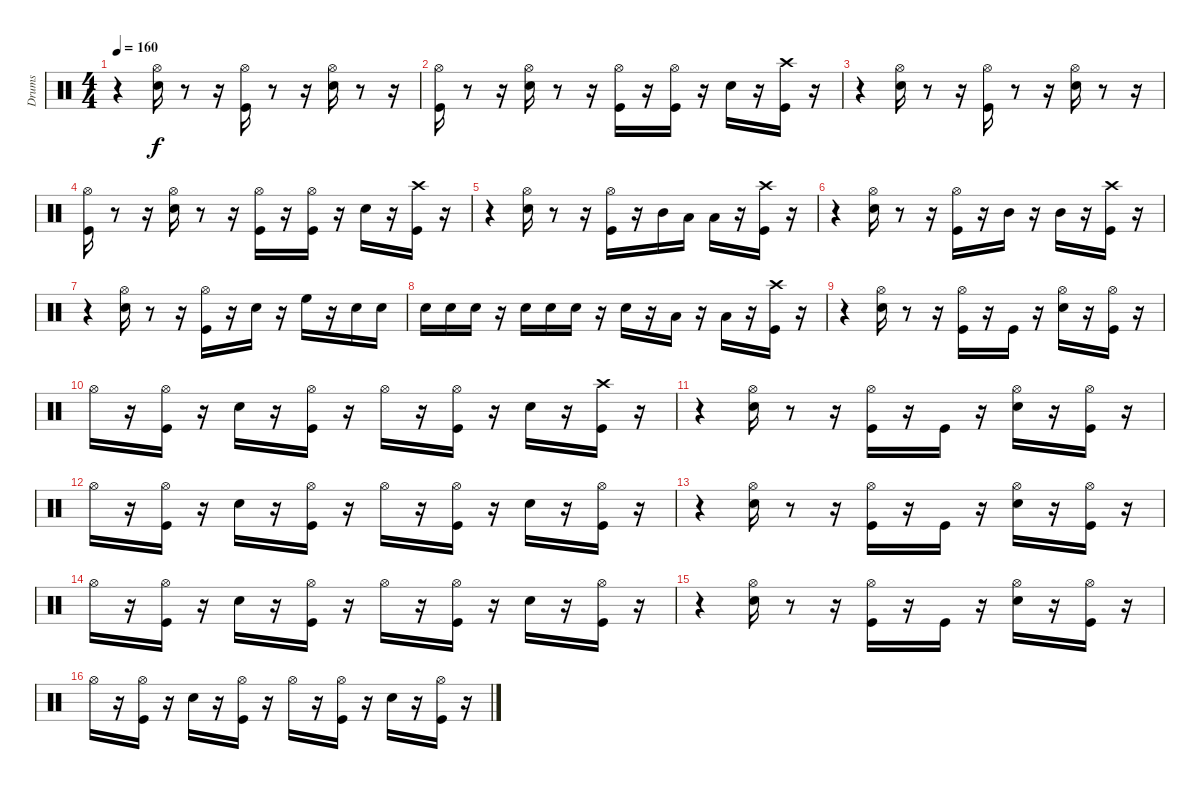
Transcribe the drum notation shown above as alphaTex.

\track ("Drums" "Drums") {instrument percussion}
\staff {score}
\articulation defaults
\ts (4 4)
\tempo 160
\clef neutral
\ks c
r.4{dy f} ("Snare (hit) 2" "Hi-Hat (open)").16 r.8 r.16 ("Kick (hit)" "Hi-Hat (open)").16 r.8 r.16 ("Snare (hit) 2" "Hi-Hat (open)").16 r.8 r.16 |
("Kick (hit)" "Hi-Hat (open)").16 r.8 r.16 ("Hi-Hat (open)" "Snare (hit) 2").16 r.8 r.16 ("Kick (hit)" "Hi-Hat (open)").16 r.16 ("Kick (hit)" "Hi-Hat (open)").16 r.16 "Snare (hit) 2".16 r.16 ("Kick (hit)" "Crash high (hit)").16 r.16 |
r.4 ("Snare (hit) 2" "Hi-Hat (open)").16 r.8 r.16 ("Kick (hit)" "Hi-Hat (open)").16 r.8 r.16 ("Snare (hit) 2" "Hi-Hat (open)").16 r.8 r.16 |
("Kick (hit)" "Hi-Hat (open)").16 r.8 r.16 ("Hi-Hat (open)" "Snare (hit) 2").16 r.8 r.16 ("Kick (hit)" "Hi-Hat (open)").16 r.16 ("Kick (hit)" "Hi-Hat (open)").16 r.16 "Snare (hit) 2".16 r.16 ("Kick (hit)" "Crash high (hit)").16 r.16 |
r.4 ("Snare (hit) 2" "Hi-Hat (open)").16 r.8 r.16 ("Kick (hit)" "Hi-Hat (open)").16 r.16 "Mid Tom (hit)".16 "Low Tom (hit)".16 "Low Tom (hit)".16 r.16 ("Kick (hit)" "Crash high (hit)").16 r.16 |
r.4 ("Snare (hit) 2" "Hi-Hat (open)").16 r.8 r.16 ("Kick (hit)" "Hi-Hat (open)").16 r.16 "Mid Tom (hit)".16 r.16 "Mid Tom (hit)".16 r.16 ("Kick (hit)" "Crash high (hit)").16 r.16 |
r.4 ("Hi-Hat (open)" "Snare (hit) 2").16 r.8 r.16 ("Kick (hit)" "Hi-Hat (open)").16 r.16 "Snare (hit) 2".16 r.16 "High Floor Tom (hit)".16 r.16 "Snare (hit) 2".16 "Snare (hit) 2".16 |
"Electric Snare (hit)".16 "Electric Snare (hit)".16 "Electric Snare (hit)".16 r.16 "Snare (hit) 2".16 "Snare (hit) 2".16 "Snare (hit) 2".16 r.16 "Electric Snare (hit)".16 r.16 "Low Tom (hit)".16 r.16 "Low Tom (hit)".16 r.16 ("Kick (hit)" "Crash high (hit)").16 r.16 |
r.4 ("Hi-Hat (open)" "Snare (hit) 2").16 r.8 r.16 ("Kick (hit)" "Hi-Hat (open)").16 r.16 "Kick (hit)".16 r.16 ("Snare (hit) 2" "Hi-Hat (open)").16 r.16 ("Kick (hit)" "Hi-Hat (open)").16 r.16 |
"Hi-Hat (open)".16 r.16 ("Kick (hit)" "Hi-Hat (open)").16 r.16 "Snare (hit) 2".16 r.16 ("Kick (hit)" "Hi-Hat (open)").16 r.16 "Hi-Hat (open)".16 r.16 ("Kick (hit)" "Hi-Hat (open)").16 r.16 "Snare (hit) 2".16 r.16 ("Kick (hit)" "Crash high (hit)").16 r.16 |
r.4 ("Snare (hit) 2" "Hi-Hat (open)").16 r.8 r.16 ("Kick (hit)" "Hi-Hat (open)").16 r.16 "Kick (hit)".16 r.16 ("Snare (hit) 2" "Hi-Hat (open)").16 r.16 ("Kick (hit)" "Hi-Hat (open)").16 r.16 |
"Hi-Hat (open)".16 r.16 ("Kick (hit)" "Hi-Hat (open)").16 r.16 "Snare (hit) 2".16 r.16 ("Kick (hit)" "Hi-Hat (open)").16 r.16 "Hi-Hat (open)".16 r.16 ("Kick (hit)" "Hi-Hat (open)").16 r.16 "Snare (hit) 2".16 r.16 ("Kick (hit)" "Hi-Hat (open)").16 r.16 |
r.4 ("Snare (hit) 2" "Hi-Hat (open)").16 r.8 r.16 ("Kick (hit)" "Hi-Hat (open)").16 r.16 "Kick (hit)".16 r.16 ("Snare (hit) 2" "Hi-Hat (open)").16 r.16 ("Kick (hit)" "Hi-Hat (open)").16 r.16 |
"Hi-Hat (open)".16 r.16 ("Kick (hit)" "Hi-Hat (open)").16 r.16 "Snare (hit) 2".16 r.16 ("Kick (hit)" "Hi-Hat (open)").16 r.16 "Hi-Hat (open)".16 r.16 ("Kick (hit)" "Hi-Hat (open)").16 r.16 "Snare (hit) 2".16 r.16 ("Kick (hit)" "Hi-Hat (open)").16 r.16 |
r.4 ("Snare (hit) 2" "Hi-Hat (open)").16 r.8 r.16 ("Kick (hit)" "Hi-Hat (open)").16 r.16 "Kick (hit)".16 r.16 ("Snare (hit) 2" "Hi-Hat (open)").16 r.16 ("Kick (hit)" "Hi-Hat (open)").16 r.16 |
"Hi-Hat (open)".16 r.16 ("Kick (hit)" "Hi-Hat (open)").16 r.16 "Snare (hit) 2".16 r.16 ("Kick (hit)" "Hi-Hat (open)").16 r.16 "Hi-Hat (open)".16 r.16 ("Kick (hit)" "Hi-Hat (open)").16 r.16 "Snare (hit) 2".16 r.16 ("Kick (hit)" "Hi-Hat (open)").16 r.16
